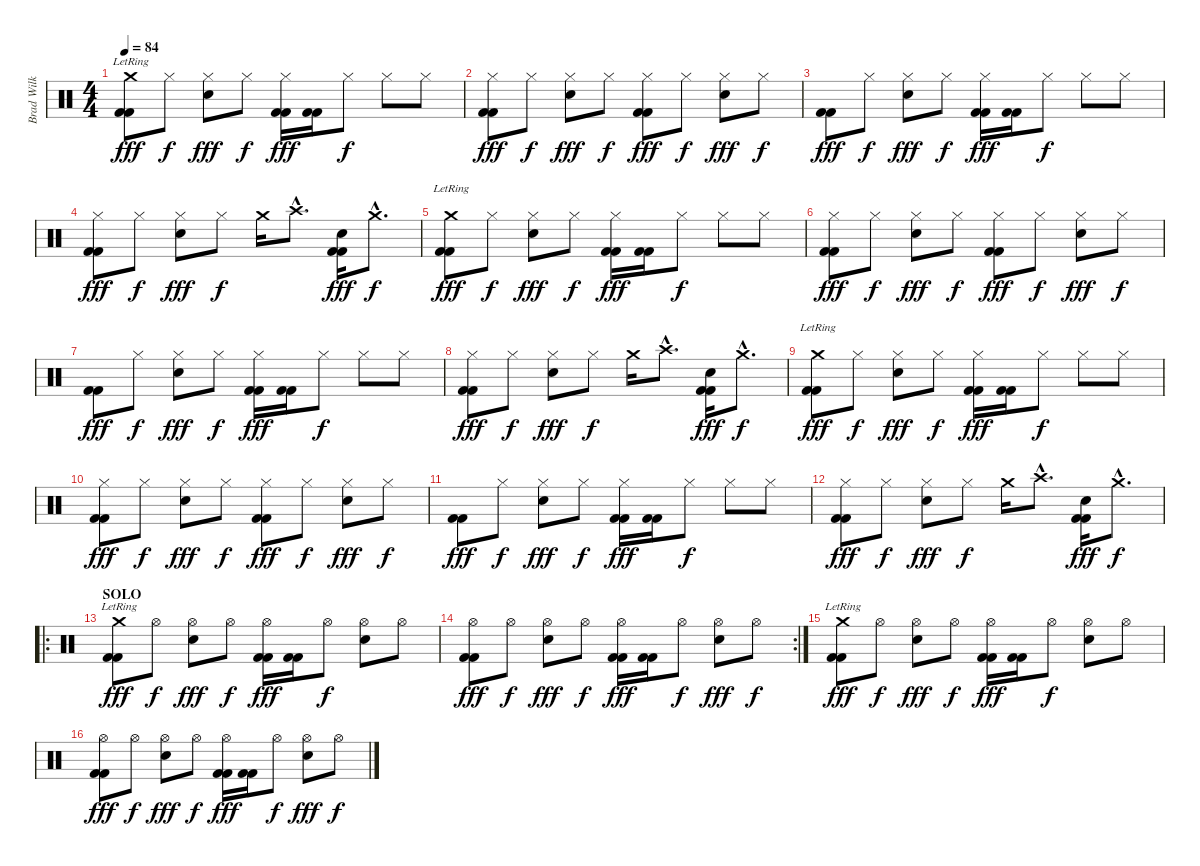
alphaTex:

\track ("Brad Wilk" "Brad Wilk") {instrument percussion}
\staff {score}
\articulation defaults
\ts (4 4)
\tempo 84
\clef neutral
\ks c
("Crash medium (hit)"{lr} "Kick (hit) 2" "Kick (hit) 2").8{dy fff} "Hi-Hat (closed)".8{dy f} ("Hi-Hat (closed)" "Snare (hit) 2").8{dy fff} "Hi-Hat (closed)".8{dy f} ("Hi-Hat (closed)" "Kick (hit) 2" "Kick (hit) 2").16{dy fff} ("Kick (hit) 2" "Kick (hit) 2").16 "Hi-Hat (closed)".8{dy f} "Hi-Hat (closed)".8 "Hi-Hat (closed)".8 |
("Hi-Hat (closed)" "Kick (hit) 2" "Kick (hit) 2").8{dy fff} "Hi-Hat (closed)".8{dy f} ("Hi-Hat (closed)" "Snare (hit) 2").8{dy fff} "Hi-Hat (closed)".8{dy f} ("Hi-Hat (closed)" "Kick (hit) 2" "Kick (hit) 2").8{dy fff} "Hi-Hat (closed)".8{dy f} ("Hi-Hat (closed)" "Snare (hit) 2").8{dy fff} "Hi-Hat (closed)".8{dy f} |
("Kick (hit) 2" "Kick (hit) 2").8{dy fff} "Hi-Hat (closed)".8{dy f} ("Hi-Hat (closed)" "Snare (hit) 2").8{dy fff} "Hi-Hat (closed)".8{dy f} ("Hi-Hat (closed)" "Kick (hit) 2" "Kick (hit) 2").16{dy fff} ("Kick (hit) 2" "Kick (hit) 2").16 "Hi-Hat (closed)".8{dy f} "Hi-Hat (closed)".8 "Hi-Hat (closed)".8 |
("Hi-Hat (closed)" "Kick (hit) 2" "Kick (hit) 2").8{dy fff} "Hi-Hat (closed)".8{dy f} ("Hi-Hat (closed)" "Snare (hit) 2").8{dy fff} "Hi-Hat (closed)".8{dy f} "Crash medium (hit)".16 "Crash high (hit)"{hac}.8{d} ("Electric Snare (hit)" "Kick (hit) 2" "Kick (hit) 2").16{dy fff} "Crash medium (hit)"{hac}.8{d dy f} |
("Crash medium (hit)"{lr} "Kick (hit) 2" "Kick (hit) 2").8{dy fff} "Hi-Hat (closed)".8{dy f} ("Hi-Hat (closed)" "Snare (hit) 2").8{dy fff} "Hi-Hat (closed)".8{dy f} ("Hi-Hat (closed)" "Kick (hit) 2" "Kick (hit) 2").16{dy fff} ("Kick (hit) 2" "Kick (hit) 2").16 "Hi-Hat (closed)".8{dy f} "Hi-Hat (closed)".8 "Hi-Hat (closed)".8 |
("Hi-Hat (closed)" "Kick (hit) 2" "Kick (hit) 2").8{dy fff} "Hi-Hat (closed)".8{dy f} ("Hi-Hat (closed)" "Snare (hit) 2").8{dy fff} "Hi-Hat (closed)".8{dy f} ("Hi-Hat (closed)" "Kick (hit) 2" "Kick (hit) 2").8{dy fff} "Hi-Hat (closed)".8{dy f} ("Hi-Hat (closed)" "Snare (hit) 2").8{dy fff} "Hi-Hat (closed)".8{dy f} |
("Kick (hit) 2" "Kick (hit) 2").8{dy fff} "Hi-Hat (closed)".8{dy f} ("Hi-Hat (closed)" "Snare (hit) 2").8{dy fff} "Hi-Hat (closed)".8{dy f} ("Hi-Hat (closed)" "Kick (hit) 2" "Kick (hit) 2").16{dy fff} ("Kick (hit) 2" "Kick (hit) 2").16 "Hi-Hat (closed)".8{dy f} "Hi-Hat (closed)".8 "Hi-Hat (closed)".8 |
("Hi-Hat (closed)" "Kick (hit) 2" "Kick (hit) 2").8{dy fff} "Hi-Hat (closed)".8{dy f} ("Hi-Hat (closed)" "Snare (hit) 2").8{dy fff} "Hi-Hat (closed)".8{dy f} "Crash medium (hit)".16 "Crash high (hit)"{hac}.8{d} ("Electric Snare (hit)" "Kick (hit) 2" "Kick (hit) 2").16{dy fff} "Crash medium (hit)"{hac}.8{d dy f} |
("Crash medium (hit)"{lr} "Kick (hit) 2" "Kick (hit) 2").8{dy fff} "Hi-Hat (closed)".8{dy f} ("Hi-Hat (closed)" "Snare (hit) 2").8{dy fff} "Hi-Hat (closed)".8{dy f} ("Hi-Hat (closed)" "Kick (hit) 2" "Kick (hit) 2").16{dy fff} ("Kick (hit) 2" "Kick (hit) 2").16 "Hi-Hat (closed)".8{dy f} "Hi-Hat (closed)".8 "Hi-Hat (closed)".8 |
("Hi-Hat (closed)" "Kick (hit) 2" "Kick (hit) 2").8{dy fff} "Hi-Hat (closed)".8{dy f} ("Hi-Hat (closed)" "Snare (hit) 2").8{dy fff} "Hi-Hat (closed)".8{dy f} ("Hi-Hat (closed)" "Kick (hit) 2" "Kick (hit) 2").8{dy fff} "Hi-Hat (closed)".8{dy f} ("Hi-Hat (closed)" "Snare (hit) 2").8{dy fff} "Hi-Hat (closed)".8{dy f} |
("Kick (hit) 2" "Kick (hit) 2").8{dy fff} "Hi-Hat (closed)".8{dy f} ("Hi-Hat (closed)" "Snare (hit) 2").8{dy fff} "Hi-Hat (closed)".8{dy f} ("Hi-Hat (closed)" "Kick (hit) 2" "Kick (hit) 2").16{dy fff} ("Kick (hit) 2" "Kick (hit) 2").16 "Hi-Hat (closed)".8{dy f} "Hi-Hat (closed)".8 "Hi-Hat (closed)".8 |
("Hi-Hat (closed)" "Kick (hit) 2" "Kick (hit) 2").8{dy fff} "Hi-Hat (closed)".8{dy f} ("Hi-Hat (closed)" "Snare (hit) 2").8{dy fff} "Hi-Hat (closed)".8{dy f} "Crash medium (hit)".16 "Crash high (hit)"{hac}.8{d} ("Electric Snare (hit)" "Kick (hit) 2" "Kick (hit) 2").16{dy fff} "Crash medium (hit)"{hac}.8{d dy f} |
\ro
\section ("" "SOLO")
("Crash medium (hit)"{lr} "Kick (hit) 2" "Kick (hit) 2").8{dy fff} "Hi-Hat (open)".8{dy f} ("Hi-Hat (open)" "Snare (hit) 2").8{dy fff} "Hi-Hat (open)".8{dy f} ("Hi-Hat (open)" "Kick (hit) 2" "Kick (hit) 2").16{dy fff} ("Kick (hit) 2" "Kick (hit) 2").16 "Hi-Hat (open)".8{dy f} ("Hi-Hat (open)" "Snare (hit) 2").8 "Hi-Hat (open)".8 |
\rc 2
("Hi-Hat (open)" "Kick (hit) 2" "Kick (hit) 2").8{dy fff} "Hi-Hat (open)".8{dy f} ("Hi-Hat (open)" "Snare (hit) 2").8{dy fff} "Hi-Hat (open)".8{dy f} ("Hi-Hat (open)" "Kick (hit) 2" "Kick (hit) 2").16{dy fff} ("Kick (hit) 2" "Kick (hit) 2").16 "Hi-Hat (open)".8{dy f} ("Hi-Hat (open)" "Snare (hit) 2").8{dy fff} "Hi-Hat (open)".8{dy f} |
("Crash medium (hit)"{lr} "Kick (hit) 2" "Kick (hit) 2").8{dy fff} "Hi-Hat (open)".8{dy f} ("Hi-Hat (open)" "Snare (hit) 2").8{dy fff} "Hi-Hat (open)".8{dy f} ("Hi-Hat (open)" "Kick (hit) 2" "Kick (hit) 2").16{dy fff} ("Kick (hit) 2" "Kick (hit) 2").16 "Hi-Hat (open)".8{dy f} ("Hi-Hat (open)" "Snare (hit) 2").8 "Hi-Hat (open)".8 |
("Hi-Hat (open)" "Kick (hit) 2" "Kick (hit) 2").8{dy fff} "Hi-Hat (open)".8{dy f} ("Hi-Hat (open)" "Snare (hit) 2").8{dy fff} "Hi-Hat (open)".8{dy f} ("Hi-Hat (open)" "Kick (hit) 2" "Kick (hit) 2").16{dy fff} ("Kick (hit) 2" "Kick (hit) 2").16 "Hi-Hat (open)".8{dy f} ("Hi-Hat (open)" "Snare (hit) 2").8{dy fff} "Hi-Hat (open)".8{dy f}
